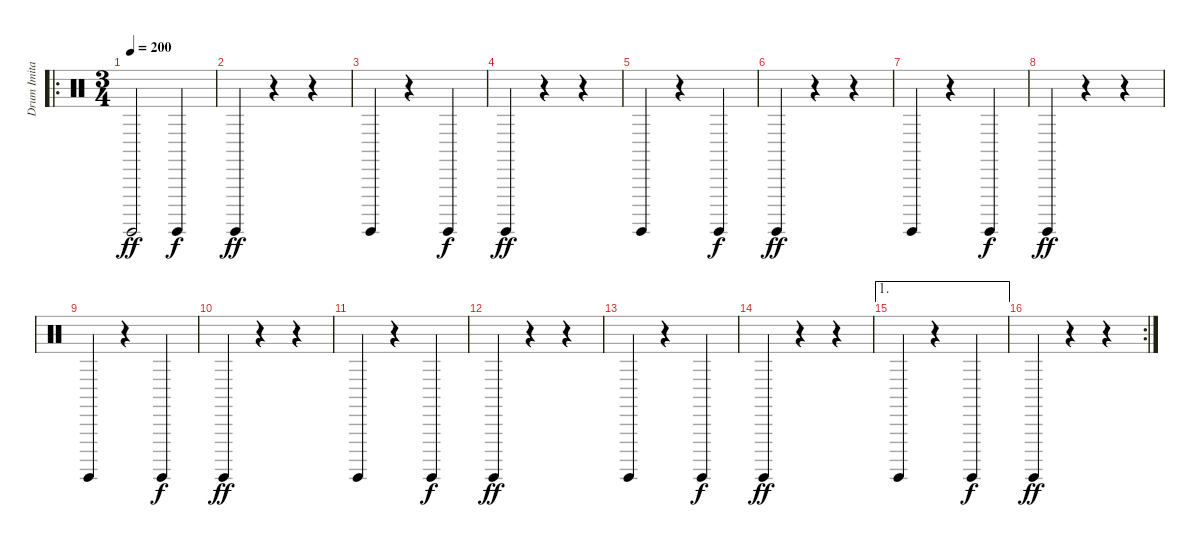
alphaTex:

\track ("Drum Imitation" "Drum Imita") {instrument percussion}
\staff {score}
\articulation defaults
\ro
\ts (3 4)
\tempo 200
\clef neutral
\ks c "Surdo (hit)".2{dy ff} "Surdo (hit)".4{dy f}
|
"Surdo (hit)".4{dy ff} r.4 r.4 |
"Surdo (hit)".4 r.4 "Surdo (hit)".4{dy f} |
"Surdo (hit)".4{dy ff} r.4 r.4 |
"Surdo (hit)".4 r.4 "Surdo (hit)".4{dy f} |
"Surdo (hit)".4{dy ff} r.4 r.4 |
"Surdo (hit)".4 r.4 "Surdo (hit)".4{dy f} |
"Surdo (hit)".4{dy ff} r.4 r.4 |
"Surdo (hit)".4 r.4 "Surdo (hit)".4{dy f} |
"Surdo (hit)".4{dy ff} r.4 r.4 |
"Surdo (hit)".4 r.4 "Surdo (hit)".4{dy f} |
"Surdo (hit)".4{dy ff} r.4 r.4 |
"Surdo (hit)".4 r.4 "Surdo (hit)".4{dy f} |
"Surdo (hit)".4{dy ff} r.4 r.4 |
\ae 1 "Surdo (hit)".4
r.4 "Surdo (hit)".4{dy f} |
\rc 2 "Surdo (hit)".4{dy ff}
r.4 r.4
